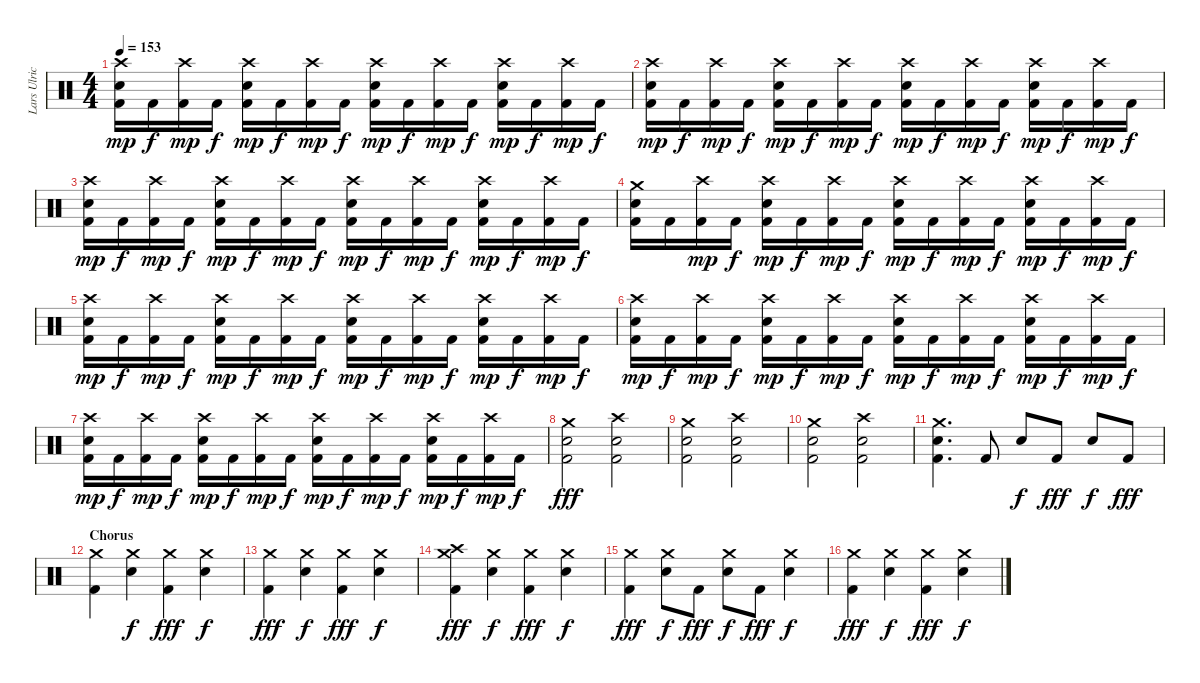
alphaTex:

\track ("Lars Ulrich (Drums)" "Lars Ulric") {instrument percussion}
\staff {score}
\articulation defaults
\ts (4 4)
\tempo 153
\clef neutral
\ks c
("Crash high (hit)" "Electric Snare (hit)" "Kick (hit) 2").16{dy mp} "Kick (hit) 2".16{dy f} ("Crash high (hit)" "Kick (hit) 2").16{dy mp} "Kick (hit) 2".16{dy f} ("Crash high (hit)" "Electric Snare (hit)" "Kick (hit) 2").16{dy mp} "Kick (hit) 2".16{dy f} ("Crash high (hit)" "Kick (hit) 2").16{dy mp} "Kick (hit) 2".16{dy f} ("Crash high (hit)" "Electric Snare (hit)" "Kick (hit) 2").16{dy mp} "Kick (hit) 2".16{dy f} ("Crash high (hit)" "Kick (hit) 2").16{dy mp} "Kick (hit) 2".16{dy f} ("Crash high (hit)" "Electric Snare (hit)" "Kick (hit) 2").16{dy mp} "Kick (hit) 2".16{dy f} ("Crash high (hit)" "Kick (hit) 2").16{dy mp} "Kick (hit) 2".16{dy f} |
("Crash high (hit)" "Electric Snare (hit)" "Kick (hit) 2").16{dy mp} "Kick (hit) 2".16{dy f} ("Crash high (hit)" "Kick (hit) 2").16{dy mp} "Kick (hit) 2".16{dy f} ("Crash high (hit)" "Electric Snare (hit)" "Kick (hit) 2").16{dy mp} "Kick (hit) 2".16{dy f} ("Crash high (hit)" "Kick (hit) 2").16{dy mp} "Kick (hit) 2".16{dy f} ("Crash high (hit)" "Electric Snare (hit)" "Kick (hit) 2").16{dy mp} "Kick (hit) 2".16{dy f} ("Crash high (hit)" "Kick (hit) 2").16{dy mp} "Kick (hit) 2".16{dy f} ("Crash high (hit)" "Electric Snare (hit)" "Kick (hit) 2").16{dy mp} "Kick (hit) 2".16{dy f} ("Crash high (hit)" "Kick (hit) 2").16{dy mp} "Kick (hit) 2".16{dy f} |
("Crash high (hit)" "Electric Snare (hit)" "Kick (hit) 2").16{dy mp} "Kick (hit) 2".16{dy f} ("Crash high (hit)" "Kick (hit) 2").16{dy mp} "Kick (hit) 2".16{dy f} ("Crash high (hit)" "Electric Snare (hit)" "Kick (hit) 2").16{dy mp} "Kick (hit) 2".16{dy f} ("Crash high (hit)" "Kick (hit) 2").16{dy mp} "Kick (hit) 2".16{dy f} ("Crash high (hit)" "Electric Snare (hit)" "Kick (hit) 2").16{dy mp} "Kick (hit) 2".16{dy f} ("Crash high (hit)" "Kick (hit) 2").16{dy mp} "Kick (hit) 2".16{dy f} ("Crash high (hit)" "Electric Snare (hit)" "Kick (hit) 2").16{dy mp} "Kick (hit) 2".16{dy f} ("Crash high (hit)" "Kick (hit) 2").16{dy mp} "Kick (hit) 2".16{dy f} |
("Crash medium (hit)" "Electric Snare (hit)" "Kick (hit) 2").16 "Kick (hit) 2".16 ("Crash high (hit)" "Kick (hit) 2").16{dy mp} "Kick (hit) 2".16{dy f} ("Crash high (hit)" "Electric Snare (hit)" "Kick (hit) 2").16{dy mp} "Kick (hit) 2".16{dy f} ("Crash high (hit)" "Kick (hit) 2").16{dy mp} "Kick (hit) 2".16{dy f} ("Crash high (hit)" "Electric Snare (hit)" "Kick (hit) 2").16{dy mp} "Kick (hit) 2".16{dy f} ("Crash high (hit)" "Kick (hit) 2").16{dy mp} "Kick (hit) 2".16{dy f} ("Crash high (hit)" "Electric Snare (hit)" "Kick (hit) 2").16{dy mp} "Kick (hit) 2".16{dy f} ("Crash high (hit)" "Kick (hit) 2").16{dy mp} "Kick (hit) 2".16{dy f} |
("Crash high (hit)" "Electric Snare (hit)" "Kick (hit) 2").16{dy mp} "Kick (hit) 2".16{dy f} ("Crash high (hit)" "Kick (hit) 2").16{dy mp} "Kick (hit) 2".16{dy f} ("Crash high (hit)" "Electric Snare (hit)" "Kick (hit) 2").16{dy mp} "Kick (hit) 2".16{dy f} ("Crash high (hit)" "Kick (hit) 2").16{dy mp} "Kick (hit) 2".16{dy f} ("Crash high (hit)" "Electric Snare (hit)" "Kick (hit) 2").16{dy mp} "Kick (hit) 2".16{dy f} ("Crash high (hit)" "Kick (hit) 2").16{dy mp} "Kick (hit) 2".16{dy f} ("Crash high (hit)" "Electric Snare (hit)" "Kick (hit) 2").16{dy mp} "Kick (hit) 2".16{dy f} ("Crash high (hit)" "Kick (hit) 2").16{dy mp} "Kick (hit) 2".16{dy f} |
("Crash high (hit)" "Electric Snare (hit)" "Kick (hit) 2").16{dy mp} "Kick (hit) 2".16{dy f} ("Crash high (hit)" "Kick (hit) 2").16{dy mp} "Kick (hit) 2".16{dy f} ("Crash high (hit)" "Electric Snare (hit)" "Kick (hit) 2").16{dy mp} "Kick (hit) 2".16{dy f} ("Crash high (hit)" "Kick (hit) 2").16{dy mp} "Kick (hit) 2".16{dy f} ("Crash high (hit)" "Electric Snare (hit)" "Kick (hit) 2").16{dy mp} "Kick (hit) 2".16{dy f} ("Crash high (hit)" "Kick (hit) 2").16{dy mp} "Kick (hit) 2".16{dy f} ("Crash high (hit)" "Electric Snare (hit)" "Kick (hit) 2").16{dy mp} "Kick (hit) 2".16{dy f} ("Crash high (hit)" "Kick (hit) 2").16{dy mp} "Kick (hit) 2".16{dy f} |
("Crash high (hit)" "Electric Snare (hit)" "Kick (hit) 2").16{dy mp} "Kick (hit) 2".16{dy f} ("Crash high (hit)" "Kick (hit) 2").16{dy mp} "Kick (hit) 2".16{dy f} ("Crash high (hit)" "Electric Snare (hit)" "Kick (hit) 2").16{dy mp} "Kick (hit) 2".16{dy f} ("Crash high (hit)" "Kick (hit) 2").16{dy mp} "Kick (hit) 2".16{dy f} ("Crash high (hit)" "Electric Snare (hit)" "Kick (hit) 2").16{dy mp} "Kick (hit) 2".16{dy f} ("Crash high (hit)" "Kick (hit) 2").16{dy mp} "Kick (hit) 2".16{dy f} ("Crash high (hit)" "Electric Snare (hit)" "Kick (hit) 2").16{dy mp} "Kick (hit) 2".16{dy f} ("Crash high (hit)" "Kick (hit) 2").16{dy mp} "Kick (hit) 2".16{dy f} |
("Crash medium (hit)" "Electric Snare (hit)" "Kick (hit) 2").2{dy fff} ("Crash high (hit)" "Electric Snare (hit)" "Kick (hit) 2").2 |
("Crash medium (hit)" "Electric Snare (hit)" "Kick (hit) 2").2 ("Crash high (hit)" "Electric Snare (hit)" "Kick (hit) 2").2 |
("Crash medium (hit)" "Electric Snare (hit)" "Kick (hit) 2").2 ("Crash high (hit)" "Electric Snare (hit)" "Kick (hit) 2").2 |
("Crash medium (hit)" "Electric Snare (hit)" "Kick (hit) 2").4{d} "Kick (hit) 2".8 "Electric Snare (hit)".8{dy f} "Kick (hit) 2".8{dy fff} "Electric Snare (hit)".8{dy f} "Kick (hit) 2".8{dy fff} |
\section ("" "Chorus")
("Crash medium (hit)" "Kick (hit) 2").4 ("Crash medium (hit)" "Electric Snare (hit)").4{dy f} ("Crash medium (hit)" "Kick (hit) 2").4{dy fff} ("Crash medium (hit)" "Electric Snare (hit)").4{dy f} |
("Crash medium (hit)" "Kick (hit) 2").4{dy fff} ("Crash medium (hit)" "Electric Snare (hit)").4{dy f} ("Crash medium (hit)" "Kick (hit) 2").4{dy fff} ("Crash medium (hit)" "Electric Snare (hit)").4{dy f} |
("Crash medium (hit)" "Crash high (hit)" "Kick (hit) 2").4{dy fff} ("Crash medium (hit)" "Electric Snare (hit)").4{dy f} ("Crash medium (hit)" "Kick (hit) 2").4{dy fff} ("Crash medium (hit)" "Electric Snare (hit)").4{dy f} |
("Crash medium (hit)" "Kick (hit) 2").4{dy fff} ("Crash medium (hit)" "Electric Snare (hit)").8{dy f} "Kick (hit) 2".8{dy fff} ("Crash medium (hit)" "Electric Snare (hit)").8{dy f} "Kick (hit) 2".8{dy fff} ("Crash medium (hit)" "Electric Snare (hit)").4{dy f} |
("Crash medium (hit)" "Kick (hit) 2").4{dy fff} ("Crash medium (hit)" "Electric Snare (hit)").4{dy f} ("Crash medium (hit)" "Kick (hit) 2").4{dy fff} ("Crash medium (hit)" "Electric Snare (hit)").4{dy f}
